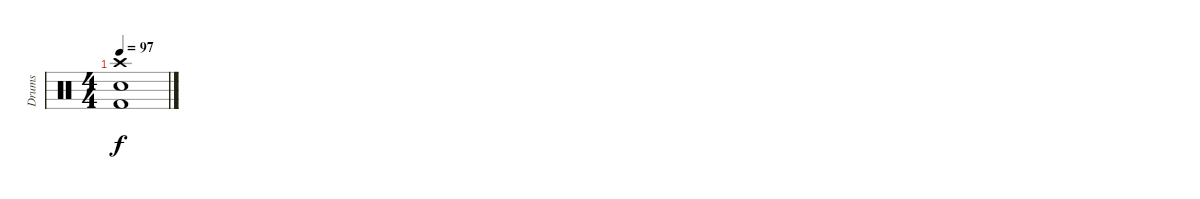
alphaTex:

\track ("Drums" "Drums") {instrument percussion}
\staff {score}
\articulation defaults
\ts (4 4)
\tempo 97
\clef neutral
\ks c
("Kick (hit) 2" "Electric Snare (hit)" "Crash high (hit)").1{dy f}
